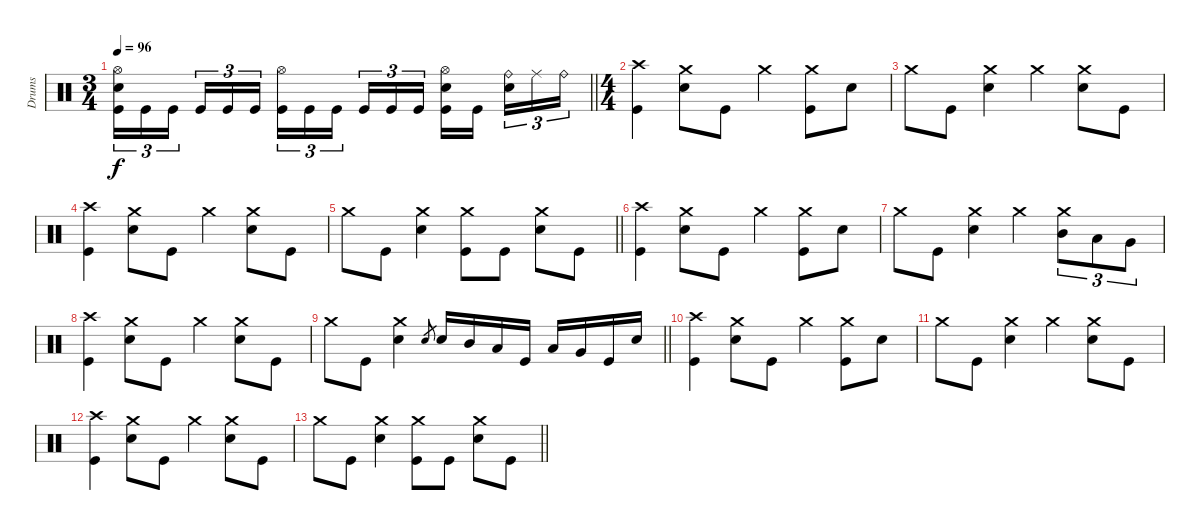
\track ("Drums" "Drums") {instrument percussion}
\staff
\articulation defaults
\ts (3 4)
\tempo 96
\clef neutral
\barLineRight lightlight
\ks c
("Hi-Hat (open)" "Electric Snare (hit)" "Kick (hit)").16{tu (3 2) dy f} "Kick (hit)".16{tu (3 2)} "Kick (hit)".16{tu (3 2) beam splitsecondary} "Kick (hit)".16{tu (3 2)} "Kick (hit)".16{tu (3 2)} "Kick (hit)".16{tu (3 2)} ("Hi-Hat (open)" "Kick (hit)").16{tu (3 2)} "Kick (hit)".16{tu (3 2)} "Kick (hit)".16{tu (3 2) beam splitsecondary} "Kick (hit)".16{tu (3 2)} "Kick (hit)".16{tu (3 2)} "Kick (hit)".16{tu (3 2)} ("Hi-Hat (open)" "Electric Snare (hit)" "Kick (hit)").16 "Kick (hit)".16{beam splitsecondary} ("Ride (bell)" "Electric Snare (hit)").16{tu (3 2)} "Ride (middle)".16{tu (3 2)} "Ride (bell)".16{tu (3 2)} |
\ts (4 4)
\section ("" "")
("Crash high (hit)" "Kick (hit)").4 ("Crash medium (hit)" "Electric Snare (hit)").8 "Kick (hit)".8 "Crash medium (hit)".4 ("Crash medium (hit)" "Kick (hit)").8 "Electric Snare (hit)".8 |
"Crash medium (hit)".8 "Kick (hit)".8 ("Crash medium (hit)" "Electric Snare (hit)").4 "Crash medium (hit)".4 ("Crash medium (hit)" "Electric Snare (hit)").8 "Kick (hit)".8 |
("Crash high (hit)" "Kick (hit)").4 ("Crash medium (hit)" "Electric Snare (hit)").8 "Kick (hit)".8 "Crash medium (hit)".4 ("Crash medium (hit)" "Electric Snare (hit)").8 "Kick (hit)".8 |
\barLineRight lightlight "Crash medium (hit)".8 "Kick (hit)".8
("Crash medium (hit)" "Electric Snare (hit)").4 ("Crash medium (hit)" "Kick (hit)").8 "Kick (hit)".8 ("Crash medium (hit)" "Electric Snare (hit)").8 "Kick (hit)".8 |
("Crash high (hit)" "Kick (hit)").4 ("Crash medium (hit)" "Electric Snare (hit)").8 "Kick (hit)".8 "Crash medium (hit)".4 ("Crash medium (hit)" "Kick (hit)").8 "Electric Snare (hit)".8 |
"Crash medium (hit)".8 "Kick (hit)".8 ("Crash medium (hit)" "Electric Snare (hit)").4 "Crash medium (hit)".4 ("Crash medium (hit)" "Mid Tom (hit)").8{tu (3 2)} "Low Tom (hit)".8{tu (3 2)} "Very Low Tom (hit)".8{tu (3 2)} |
("Crash high (hit)" "Kick (hit)").4 ("Crash medium (hit)" "Electric Snare (hit)").8 "Kick (hit)".8 "Crash medium (hit)".4 ("Crash medium (hit)" "Electric Snare (hit)").8 "Kick (hit)".8 |
\barLineRight lightlight "Crash medium (hit)".8 "Kick (hit)".8
("Crash medium (hit)" "Electric Snare (hit)").4 "Electric Snare (hit)".8{gr} "Electric Snare (hit)".16 "Mid Tom (hit)".16 "Low Tom (hit)".16 "Kick (hit)".16 "Low Tom (hit)".16 "Very Low Tom (hit)".16 "Kick (hit)".16 "Electric Snare (hit)".16 |
("Crash high (hit)" "Kick (hit)").4 ("Crash medium (hit)" "Electric Snare (hit)").8 "Kick (hit)".8 "Crash medium (hit)".4 ("Crash medium (hit)" "Kick (hit)").8 "Electric Snare (hit)".8 |
"Crash medium (hit)".8 "Kick (hit)".8 ("Crash medium (hit)" "Electric Snare (hit)").4 "Crash medium (hit)".4 ("Crash medium (hit)" "Electric Snare (hit)").8 "Kick (hit)".8 |
("Crash high (hit)" "Kick (hit)").4 ("Crash medium (hit)" "Electric Snare (hit)").8 "Kick (hit)".8 "Crash medium (hit)".4 ("Crash medium (hit)" "Electric Snare (hit)").8 "Kick (hit)".8 |
\barLineRight lightlight "Crash medium (hit)".8 "Kick (hit)".8
("Crash medium (hit)" "Electric Snare (hit)").4 ("Crash medium (hit)" "Kick (hit)").8 "Kick (hit)".8 ("Crash medium (hit)" "Electric Snare (hit)").8 "Kick (hit)".8
